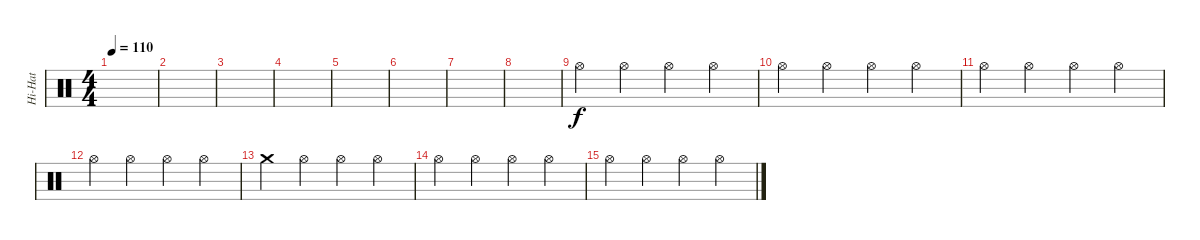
\track ("Hi-Hat" "Hi-Hat") {instrument percussion}
\staff {score}
\articulation defaults
\ts (4 4)
\tempo 110
\clef neutral
\ks c
|
|
|
|
|
|
|
|
"Hi-Hat (open)".4 "Hi-Hat (open)".4 "Hi-Hat (open)".4 "Hi-Hat (open)".4 |
"Hi-Hat (open)".4 "Hi-Hat (open)".4 "Hi-Hat (open)".4 "Hi-Hat (open)".4 |
"Hi-Hat (open)".4 "Hi-Hat (open)".4 "Hi-Hat (open)".4 "Hi-Hat (open)".4 |
"Hi-Hat (open)".4 "Hi-Hat (open)".4 "Hi-Hat (open)".4 "Hi-Hat (open)".4 |
"Crash medium (hit)".4 "Hi-Hat (open)".4 "Hi-Hat (open)".4 "Hi-Hat (open)".4 |
"Hi-Hat (open)".4 "Hi-Hat (open)".4 "Hi-Hat (open)".4 "Hi-Hat (open)".4 |
"Hi-Hat (open)".4 "Hi-Hat (open)".4 "Hi-Hat (open)".4 "Hi-Hat (open)".4
